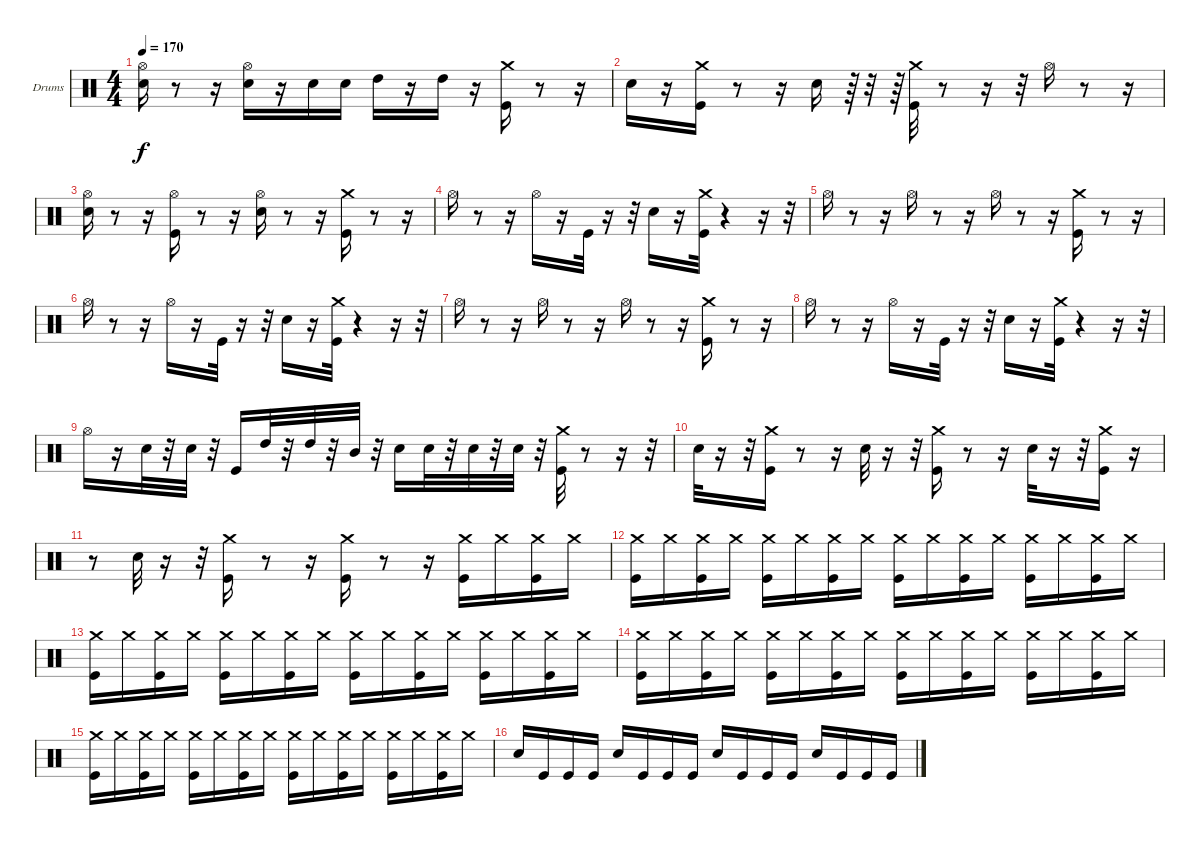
\bracketExtendMode groupsimilarinstruments
\firstSystemTrackNameOrientation horizontal
\otherSystemsTrackNameOrientation horizontal
\track ("Thomas" "Drums") {instrument percussion}
\staff {score}
\articulation defaults
\ts (4 4)
\tempo 170
\clef neutral
\ks c
("Hi-Hat (open)" "Snare (hit) 2").16{dy f} r.8 r.16 ("Hi-Hat (open)" "Snare (hit) 2").16 r.16 "Snare (hit) 2".16 "Snare (hit) 2".16 "High Tom (hit)".16 r.16 "High Tom (hit)".16 r.16 ("Kick (hit)" "Crash medium (hit)").16 r.8 r.16 |
"Snare (hit) 2".16 r.16 ("Kick (hit)" "Crash medium (hit)").16 r.8 r.16 "Snare (hit) 2".16 r.64 r.32 r.64 ("Kick (hit)" "Crash medium (hit)").32 r.8 r.16 r.32 "Hi-Hat (open)".16 r.8 r.16 |
("Hi-Hat (open)" "Snare (hit) 2").16 r.8 r.16 ("Hi-Hat (open)" "Kick (hit)").16 r.8 r.16 ("Hi-Hat (open)" "Snare (hit) 2").16 r.8 r.16 ("Kick (hit)" "Crash medium (hit)").16 r.8 r.16 |
"Hi-Hat (open)".16 r.8 r.16 "Hi-Hat (open)".16 r.16 "Kick (hit)".32 r.16 r.32 "Snare (hit) 2".16 r.16 ("Kick (hit)" "Crash medium (hit)").32 r.4 r.16 r.32 |
"Hi-Hat (open)".16 r.8 r.16 "Hi-Hat (open)".16 r.8 r.16 "Hi-Hat (open)".16 r.8 r.16 ("Kick (hit)" "Crash medium (hit)").16 r.8 r.16 |
"Hi-Hat (open)".16 r.8 r.16 "Hi-Hat (open)".16 r.16 "Kick (hit)".32 r.16 r.32 "Snare (hit) 2".16 r.16 ("Kick (hit)" "Crash medium (hit)").32 r.4 r.16 r.32 |
"Hi-Hat (open)".16 r.8 r.16 "Hi-Hat (open)".16 r.8 r.16 "Hi-Hat (open)".16 r.8 r.16 ("Kick (hit)" "Crash medium (hit)").16 r.8 r.16 |
"Hi-Hat (open)".16 r.8 r.16 "Hi-Hat (open)".16 r.16 "Kick (hit)".32 r.16 r.32 "Snare (hit) 2".16 r.16 ("Kick (hit)" "Crash medium (hit)").32 r.4 r.16 r.32 |
"Hi-Hat (open)".16 r.16 "Snare (hit) 2".32 r.32 "Snare (hit) 2".32 r.32 "Kick (hit)".16 "High Tom (hit)".32 r.32 "High Tom (hit)".32 r.32 "Mid Tom (hit)".32 r.32 "Snare (hit) 2".16 "Snare (hit) 2".32 r.32 "Snare (hit) 2".32 r.32 "Snare (hit) 2".32 r.32 ("Kick (hit)" "Crash medium (hit)").32 r.8 r.16 r.32 |
"Snare (hit) 2".32 r.16 r.32 ("Kick (hit)" "Crash medium (hit)").16 r.8 r.16 "Snare (hit) 2".32 r.16 r.32 ("Kick (hit)" "Crash medium (hit)").16 r.8 r.16 "Snare (hit) 2".32 r.16 r.32 ("Kick (hit)" "Crash medium (hit)").16 r.16 |
r.8 "Snare (hit) 2".32 r.16 r.32 ("Kick (hit)" "Crash medium (hit)").16 r.8 r.16 ("Kick (hit)" "Crash medium (hit)").16 r.8 r.16 ("Crash medium (hit)" "Kick (hit)").16 "Crash medium (hit)".16 ("Kick (hit)" "Crash medium (hit)").16 "Crash medium (hit)".16 |
("Kick (hit)" "Crash medium (hit)").16 "Crash medium (hit)".16 ("Kick (hit)" "Crash medium (hit)").16 "Crash medium (hit)".16 ("Kick (hit)" "Crash medium (hit)").16 "Crash medium (hit)".16 ("Kick (hit)" "Crash medium (hit)").16 "Crash medium (hit)".16 ("Kick (hit)" "Crash medium (hit)").16 "Crash medium (hit)".16 ("Kick (hit)" "Crash medium (hit)").16 "Crash medium (hit)".16 ("Kick (hit)" "Crash medium (hit)").16 "Crash medium (hit)".16 ("Kick (hit)" "Crash medium (hit)").16 "Crash medium (hit)".16 |
("Kick (hit)" "Crash medium (hit)").16 "Crash medium (hit)".16 ("Kick (hit)" "Crash medium (hit)").16 "Crash medium (hit)".16 ("Kick (hit)" "Crash medium (hit)").16 "Crash medium (hit)".16 ("Kick (hit)" "Crash medium (hit)").16 "Crash medium (hit)".16 ("Kick (hit)" "Crash medium (hit)").16 "Crash medium (hit)".16 ("Kick (hit)" "Crash medium (hit)").16 "Crash medium (hit)".16 ("Kick (hit)" "Crash medium (hit)").16 "Crash medium (hit)".16 ("Kick (hit)" "Crash medium (hit)").16 "Crash medium (hit)".16 |
("Crash medium (hit)" "Kick (hit)").16 "Crash medium (hit)".16 ("Kick (hit)" "Crash medium (hit)").16 "Crash medium (hit)".16 ("Kick (hit)" "Crash medium (hit)").16 "Crash medium (hit)".16 ("Kick (hit)" "Crash medium (hit)").16 "Crash medium (hit)".16 ("Kick (hit)" "Crash medium (hit)").16 "Crash medium (hit)".16 ("Kick (hit)" "Crash medium (hit)").16 "Crash medium (hit)".16 ("Kick (hit)" "Crash medium (hit)").16 "Crash medium (hit)".16 ("Kick (hit)" "Crash medium (hit)").16 "Crash medium (hit)".16 |
("Kick (hit)" "Crash medium (hit)").16 "Crash medium (hit)".16 ("Kick (hit)" "Crash medium (hit)").16 "Crash medium (hit)".16 ("Kick (hit)" "Crash medium (hit)").16 "Crash medium (hit)".16 ("Kick (hit)" "Crash medium (hit)").16 "Crash medium (hit)".16 ("Kick (hit)" "Crash medium (hit)").16 "Crash medium (hit)".16 ("Kick (hit)" "Crash medium (hit)").16 "Crash medium (hit)".16 ("Kick (hit)" "Crash medium (hit)").16 "Crash medium (hit)".16 ("Kick (hit)" "Crash medium (hit)").16 "Crash medium (hit)".16 |
"Snare (hit) 2".16 "Kick (hit)".16 "Kick (hit)".16 "Kick (hit)".16 "Snare (hit) 2".16 "Kick (hit)".16 "Kick (hit)".16 "Kick (hit)".16 "Snare (hit) 2".16 "Kick (hit)".16 "Kick (hit)".16 "Kick (hit)".16 "Snare (hit) 2".16 "Kick (hit)".16 "Kick (hit)".16 "Kick (hit)".16
